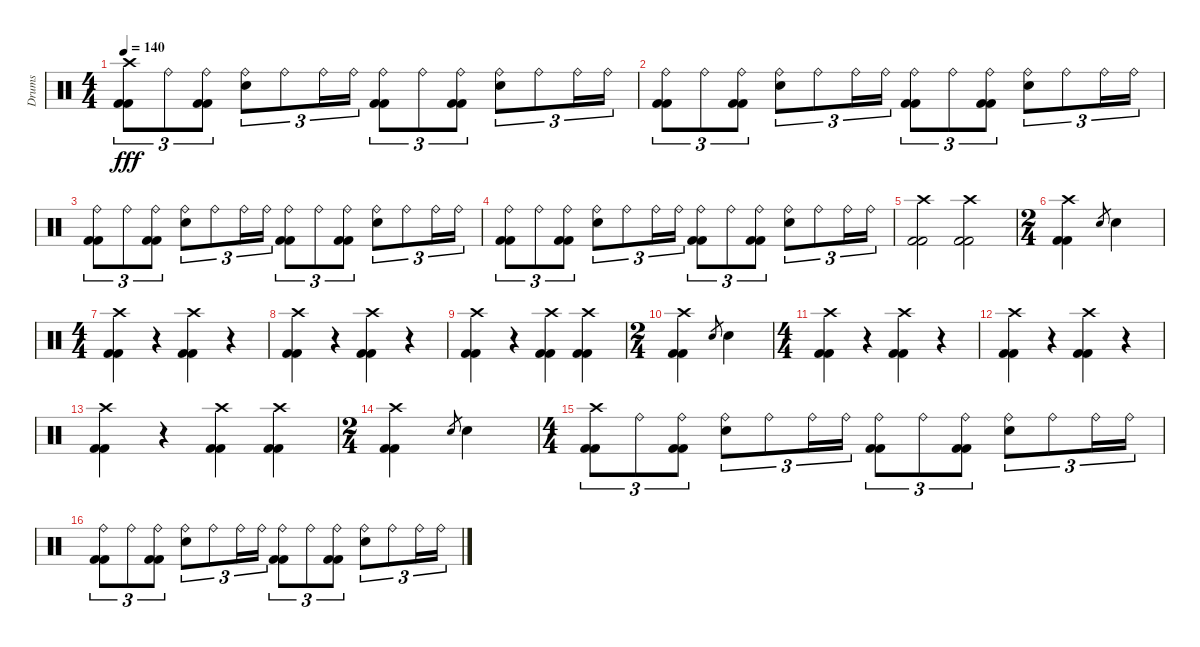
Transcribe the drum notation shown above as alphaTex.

\track ("Drums" "Drums") {instrument percussion}
\staff {score}
\articulation defaults
\ts (4 4)
\tempo 140
\clef neutral
\ks c
("Crash high (hit)" "Kick (hit) 2" "Kick (hit) 2").8{tu (3 2) dy fff} "Ride (bell)".8{tu (3 2)} ("Ride (bell)" "Kick (hit) 2" "Kick (hit) 2").8{tu (3 2)} ("Ride (bell)" "Snare (hit) 2").8{tu (3 2)} "Ride (bell)".8{tu (3 2)} "Ride (bell)".16{tu (3 2)} "Ride (bell)".16{tu (3 2)} ("Ride (bell)" "Kick (hit) 2" "Kick (hit) 2").8{tu (3 2)} "Ride (bell)".8{tu (3 2)} ("Ride (bell)" "Kick (hit) 2" "Kick (hit) 2").8{tu (3 2)} ("Ride (bell)" "Snare (hit) 2").8{tu (3 2)} "Ride (bell)".8{tu (3 2)} "Ride (bell)".16{tu (3 2)} "Ride (bell)".16{tu (3 2)} |
("Ride (bell)" "Kick (hit) 2" "Kick (hit) 2").8{tu (3 2)} "Ride (bell)".8{tu (3 2)} ("Ride (bell)" "Kick (hit) 2" "Kick (hit) 2").8{tu (3 2)} ("Ride (bell)" "Snare (hit) 2").8{tu (3 2)} "Ride (bell)".8{tu (3 2)} "Ride (bell)".16{tu (3 2)} "Ride (bell)".16{tu (3 2)} ("Ride (bell)" "Kick (hit) 2" "Kick (hit) 2").8{tu (3 2)} "Ride (bell)".8{tu (3 2)} ("Ride (bell)" "Kick (hit) 2" "Kick (hit) 2").8{tu (3 2)} ("Ride (bell)" "Snare (hit) 2").8{tu (3 2)} "Ride (bell)".8{tu (3 2)} "Ride (bell)".16{tu (3 2)} "Ride (bell)".16{tu (3 2)} |
("Ride (bell)" "Kick (hit) 2" "Kick (hit) 2").8{tu (3 2)} "Ride (bell)".8{tu (3 2)} ("Ride (bell)" "Kick (hit) 2" "Kick (hit) 2").8{tu (3 2)} ("Ride (bell)" "Snare (hit) 2").8{tu (3 2)} "Ride (bell)".8{tu (3 2)} "Ride (bell)".16{tu (3 2)} "Ride (bell)".16{tu (3 2)} ("Ride (bell)" "Kick (hit) 2" "Kick (hit) 2").8{tu (3 2)} "Ride (bell)".8{tu (3 2)} ("Ride (bell)" "Kick (hit) 2" "Kick (hit) 2").8{tu (3 2)} ("Ride (bell)" "Snare (hit) 2").8{tu (3 2)} "Ride (bell)".8{tu (3 2)} "Ride (bell)".16{tu (3 2)} "Ride (bell)".16{tu (3 2)} |
("Ride (bell)" "Kick (hit) 2" "Kick (hit) 2").8{tu (3 2)} "Ride (bell)".8{tu (3 2)} ("Ride (bell)" "Kick (hit) 2" "Kick (hit) 2").8{tu (3 2)} ("Ride (bell)" "Snare (hit) 2").8{tu (3 2)} "Ride (bell)".8{tu (3 2)} "Ride (bell)".16{tu (3 2)} "Ride (bell)".16{tu (3 2)} ("Ride (bell)" "Kick (hit) 2" "Kick (hit) 2").8{tu (3 2)} "Ride (bell)".8{tu (3 2)} ("Ride (bell)" "Kick (hit) 2" "Kick (hit) 2").8{tu (3 2)} ("Ride (bell)" "Snare (hit) 2").8{tu (3 2)} "Ride (bell)".8{tu (3 2)} "Ride (bell)".16{tu (3 2)} "Ride (bell)".16{tu (3 2)} |
("Crash high (hit)" "Kick (hit) 2" "Kick (hit) 2").2 ("Crash high (hit)" "Kick (hit) 2" "Kick (hit) 2").2 |
\ts (2 4)
("Crash high (hit)" "Kick (hit) 2" "Kick (hit) 2").4 "Snare (hit) 2".8{gr} "Snare (hit) 2".4 |
\ts (4 4)
("Crash high (hit)" "Kick (hit) 2" "Kick (hit) 2").4 r.4 ("Crash high (hit)" "Kick (hit) 2" "Kick (hit) 2").4 r.4 |
("Crash high (hit)" "Kick (hit) 2" "Kick (hit) 2").4 r.4 ("Crash high (hit)" "Kick (hit) 2" "Kick (hit) 2").4 r.4 |
("Crash high (hit)" "Kick (hit) 2" "Kick (hit) 2").4 r.4 ("Crash high (hit)" "Kick (hit) 2" "Kick (hit) 2").4 ("Crash high (hit)" "Kick (hit) 2" "Kick (hit) 2").4 |
\ts (2 4)
("Crash high (hit)" "Kick (hit) 2" "Kick (hit) 2").4 "Snare (hit) 2".8{gr} "Snare (hit) 2".4 |
\ts (4 4)
("Crash high (hit)" "Kick (hit) 2" "Kick (hit) 2").4 r.4 ("Crash high (hit)" "Kick (hit) 2" "Kick (hit) 2").4 r.4 |
("Crash high (hit)" "Kick (hit) 2" "Kick (hit) 2").4 r.4 ("Crash high (hit)" "Kick (hit) 2" "Kick (hit) 2").4 r.4 |
("Crash high (hit)" "Kick (hit) 2" "Kick (hit) 2").4 r.4 ("Crash high (hit)" "Kick (hit) 2" "Kick (hit) 2").4 ("Crash high (hit)" "Kick (hit) 2" "Kick (hit) 2").4 |
\ts (2 4)
("Crash high (hit)" "Kick (hit) 2" "Kick (hit) 2").4 "Snare (hit) 2".8{gr} "Snare (hit) 2".4 |
\ts (4 4)
("Crash high (hit)" "Kick (hit) 2" "Kick (hit) 2").8{tu (3 2)} "Ride (bell)".8{tu (3 2)} ("Ride (bell)" "Kick (hit) 2" "Kick (hit) 2").8{tu (3 2)} ("Ride (bell)" "Snare (hit) 2").8{tu (3 2)} "Ride (bell)".8{tu (3 2)} "Ride (bell)".16{tu (3 2)} "Ride (bell)".16{tu (3 2)} ("Ride (bell)" "Kick (hit) 2" "Kick (hit) 2").8{tu (3 2)} "Ride (bell)".8{tu (3 2)} ("Ride (bell)" "Kick (hit) 2" "Kick (hit) 2").8{tu (3 2)} ("Ride (bell)" "Snare (hit) 2").8{tu (3 2)} "Ride (bell)".8{tu (3 2)} "Ride (bell)".16{tu (3 2)} "Ride (bell)".16{tu (3 2)} |
("Ride (bell)" "Kick (hit) 2" "Kick (hit) 2").8{tu (3 2)} "Ride (bell)".8{tu (3 2)} ("Ride (bell)" "Kick (hit) 2" "Kick (hit) 2").8{tu (3 2)} ("Ride (bell)" "Snare (hit) 2").8{tu (3 2)} "Ride (bell)".8{tu (3 2)} "Ride (bell)".16{tu (3 2)} "Ride (bell)".16{tu (3 2)} ("Ride (bell)" "Kick (hit) 2" "Kick (hit) 2").8{tu (3 2)} "Ride (bell)".8{tu (3 2)} ("Ride (bell)" "Kick (hit) 2" "Kick (hit) 2").8{tu (3 2)} ("Ride (bell)" "Snare (hit) 2").8{tu (3 2)} "Ride (bell)".8{tu (3 2)} "Ride (bell)".16{tu (3 2)} "Ride (bell)".16{tu (3 2)}
